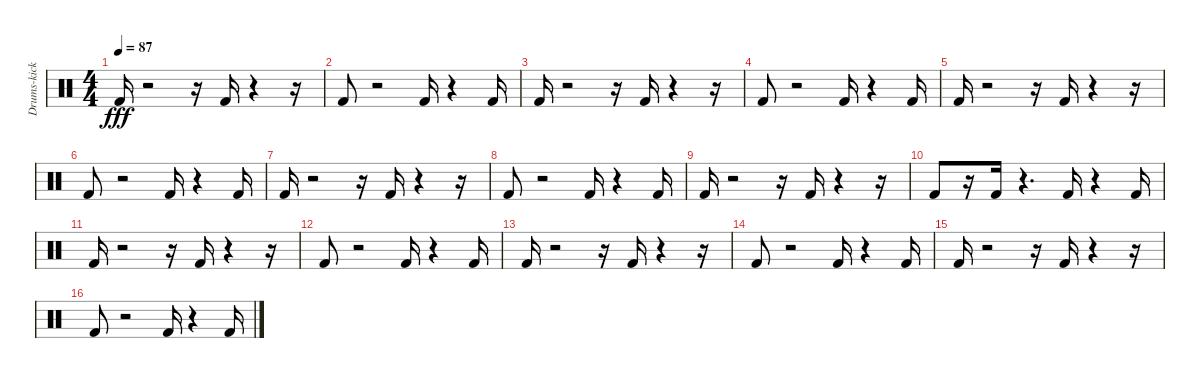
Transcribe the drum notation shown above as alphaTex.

\track ("Drums-kick drum 1" "Drums-kick") {instrument percussion}
\staff {score}
\articulation defaults
\ts (4 4)
\tempo 87
\clef neutral
\ks c "Kick (hit) 2".16{dy fff}
r.2 r.16 "Kick (hit) 2".16 r.4 r.16 |
"Kick (hit) 2".8 r.2 "Kick (hit) 2".16 r.4 "Kick (hit) 2".16 |
"Kick (hit) 2".16 r.2 r.16 "Kick (hit) 2".16 r.4 r.16 |
"Kick (hit) 2".8 r.2 "Kick (hit) 2".16 r.4 "Kick (hit) 2".16 |
"Kick (hit) 2".16 r.2 r.16 "Kick (hit) 2".16 r.4 r.16 |
"Kick (hit) 2".8 r.2 "Kick (hit) 2".16 r.4 "Kick (hit) 2".16 |
"Kick (hit) 2".16 r.2 r.16 "Kick (hit) 2".16 r.4 r.16 |
"Kick (hit) 2".8 r.2 "Kick (hit) 2".16 r.4 "Kick (hit) 2".16 |
"Kick (hit) 2".16 r.2 r.16 "Kick (hit) 2".16 r.4 r.16 |
"Kick (hit) 2".8 r.16 "Kick (hit) 2".16 r.4{d} "Kick (hit) 2".16 r.4 "Kick (hit) 2".16 |
"Kick (hit) 2".16 r.2 r.16 "Kick (hit) 2".16 r.4 r.16 |
"Kick (hit) 2".8 r.2 "Kick (hit) 2".16 r.4 "Kick (hit) 2".16 |
"Kick (hit) 2".16 r.2 r.16 "Kick (hit) 2".16 r.4 r.16 |
"Kick (hit) 2".8 r.2 "Kick (hit) 2".16 r.4 "Kick (hit) 2".16 |
"Kick (hit) 2".16 r.2 r.16 "Kick (hit) 2".16 r.4 r.16 |
"Kick (hit) 2".8 r.2 "Kick (hit) 2".16 r.4 "Kick (hit) 2".16
